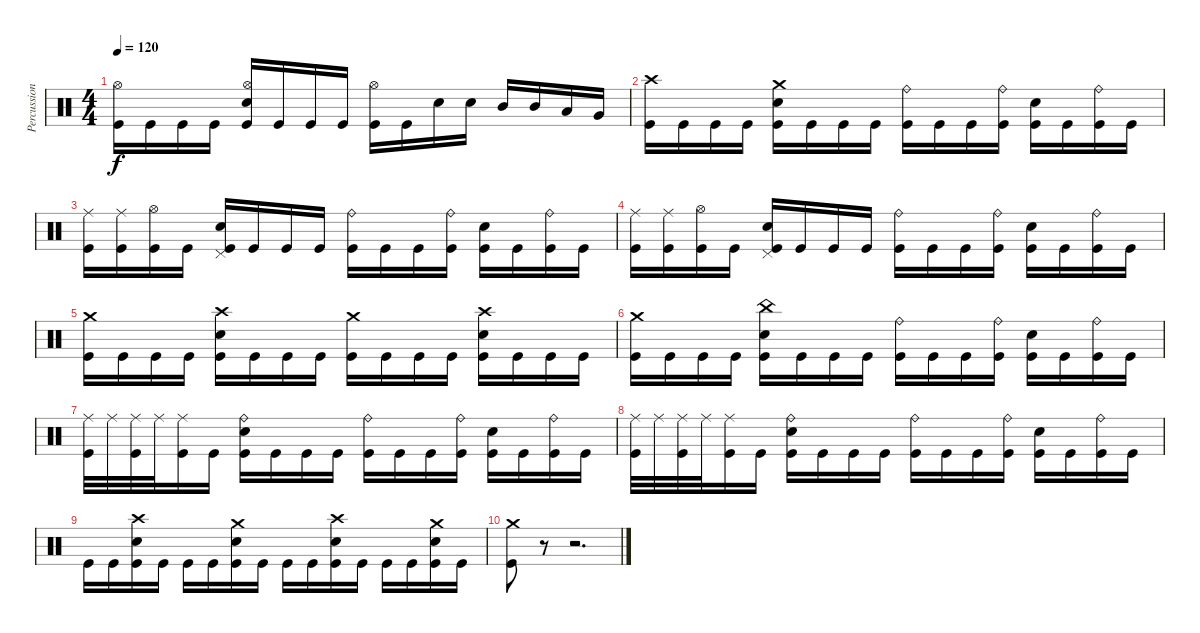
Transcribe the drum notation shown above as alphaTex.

\track ("Percussions" "Percussion") {instrument percussion}
\staff {score}
\articulation defaults
\ts (4 4)
\tempo 120
\clef neutral
\ks c
("Kick (hit)" "Hi-Hat (open)").16{dy f} "Kick (hit)".16 "Kick (hit)".16 "Kick (hit)".16 ("Kick (hit)" "Electric Snare (hit)" "Hi-Hat (open)").16 "Kick (hit)".16 "Kick (hit)".16 "Kick (hit)".16 ("Kick (hit)" "Hi-Hat (open)").16 "Kick (hit)".16 "Electric Snare (hit)".16 "Electric Snare (hit)".16 "Mid Tom (hit)".16 "Mid Tom (hit)".16 "Low Tom (hit)".16 "Very Low Tom (hit)".16 |
("Kick (hit)" "Crash high (hit)").16 "Kick (hit)".16 "Kick (hit)".16 "Kick (hit)".16 ("Kick (hit)" "Electric Snare (hit)" "Crash medium (hit)").16 "Kick (hit)".16 "Kick (hit)".16 "Kick (hit)".16 ("Kick (hit)" "Ride (bell)").16 "Kick (hit)".16 "Kick (hit)".16 ("Kick (hit)" "Ride (bell)").16 ("Kick (hit)" "Electric Snare (hit)").16 "Kick (hit)".16 ("Kick (hit)" "Ride (bell)").16 "Kick (hit)".16 |
("Kick (hit)" "Ride (middle)").16 ("Kick (hit)" "Ride (middle)").16 ("Kick (hit)" "Hi-Hat (open)").16 "Kick (hit)".16 ("Kick (hit)" "Electric Snare (hit)" "Pedal Hi-Hat (hit)").16 "Kick (hit)".16 "Kick (hit)".16 "Kick (hit)".16 ("Kick (hit)" "Ride (bell)").16 "Kick (hit)".16 "Kick (hit)".16 ("Kick (hit)" "Ride (bell)").16 ("Kick (hit)" "Electric Snare (hit)").16 "Kick (hit)".16 ("Kick (hit)" "Ride (bell)").16 "Kick (hit)".16 |
("Kick (hit)" "Ride (middle)").16 ("Kick (hit)" "Ride (middle)").16 ("Kick (hit)" "Hi-Hat (open)").16 "Kick (hit)".16 ("Kick (hit)" "Electric Snare (hit)" "Pedal Hi-Hat (hit)").16 "Kick (hit)".16 "Kick (hit)".16 "Kick (hit)".16 ("Kick (hit)" "Ride (bell)").16 "Kick (hit)".16 "Kick (hit)".16 ("Kick (hit)" "Ride (bell)").16 ("Kick (hit)" "Electric Snare (hit)").16 "Kick (hit)".16 ("Kick (hit)" "Ride (bell)").16 "Kick (hit)".16 |
("Kick (hit)" "Crash medium (hit)").16 "Kick (hit)".16 "Kick (hit)".16 "Kick (hit)".16 ("Kick (hit)" "Electric Snare (hit)" "Crash high (hit)").16 "Kick (hit)".16 "Kick (hit)".16 "Kick (hit)".16 ("Kick (hit)" "Crash medium (hit)").16 "Kick (hit)".16 "Kick (hit)".16 "Kick (hit)".16 ("Kick (hit)" "Electric Snare (hit)" "Crash high (hit)").16 "Kick (hit)".16 "Kick (hit)".16 "Kick (hit)".16 |
("Kick (hit)" "Crash medium (hit)").16 "Kick (hit)".16 "Kick (hit)".16 "Kick (hit)".16 ("Kick (hit)" "Electric Snare (hit)" "China (hit)").16 "Kick (hit)".16 "Kick (hit)".16 "Kick (hit)".16 ("Kick (hit)" "Ride (bell)").16 "Kick (hit)".16 "Kick (hit)".16 ("Kick (hit)" "Ride (bell)").16 ("Kick (hit)" "Electric Snare (hit)").16 "Kick (hit)".16 ("Kick (hit)" "Ride (bell)").16 "Kick (hit)".16 |
("Kick (hit)" "Ride (middle)").32 "Ride (middle)".32 ("Kick (hit)" "Ride (middle)").32 "Ride (middle)".32 ("Kick (hit)" "Ride (middle)").16 "Kick (hit)".16 ("Kick (hit)" "Electric Snare (hit)" "Ride (bell)").16 "Kick (hit)".16 "Kick (hit)".16 "Kick (hit)".16 ("Kick (hit)" "Ride (bell)").16 "Kick (hit)".16 "Kick (hit)".16 ("Kick (hit)" "Ride (bell)").16 ("Kick (hit)" "Electric Snare (hit)").16 "Kick (hit)".16 ("Kick (hit)" "Ride (bell)").16 "Kick (hit)".16 |
("Kick (hit)" "Ride (middle)").32 "Ride (middle)".32 ("Kick (hit)" "Ride (middle)").32 "Ride (middle)".32 ("Kick (hit)" "Ride (middle)").16 "Kick (hit)".16 ("Kick (hit)" "Electric Snare (hit)" "Ride (bell)").16 "Kick (hit)".16 "Kick (hit)".16 "Kick (hit)".16 ("Kick (hit)" "Ride (bell)").16 "Kick (hit)".16 "Kick (hit)".16 ("Kick (hit)" "Ride (bell)").16 ("Kick (hit)" "Electric Snare (hit)").16 "Kick (hit)".16 ("Kick (hit)" "Ride (bell)").16 "Kick (hit)".16 |
"Kick (hit)".16 "Kick (hit)".16 ("Kick (hit)" "Electric Snare (hit)" "Crash high (hit)").16 "Kick (hit)".16 "Kick (hit)".16 "Kick (hit)".16 ("Kick (hit)" "Electric Snare (hit)" "Crash medium (hit)").16 "Kick (hit)".16 "Kick (hit)".16 "Kick (hit)".16 ("Kick (hit)" "Electric Snare (hit)" "Crash high (hit)").16 "Kick (hit)".16 "Kick (hit)".16 "Kick (hit)".16 ("Kick (hit)" "Electric Snare (hit)" "Crash medium (hit)").16 "Kick (hit)".16 |
("Kick (hit)" "Crash medium (hit)").8 r.8 r.2{d}
